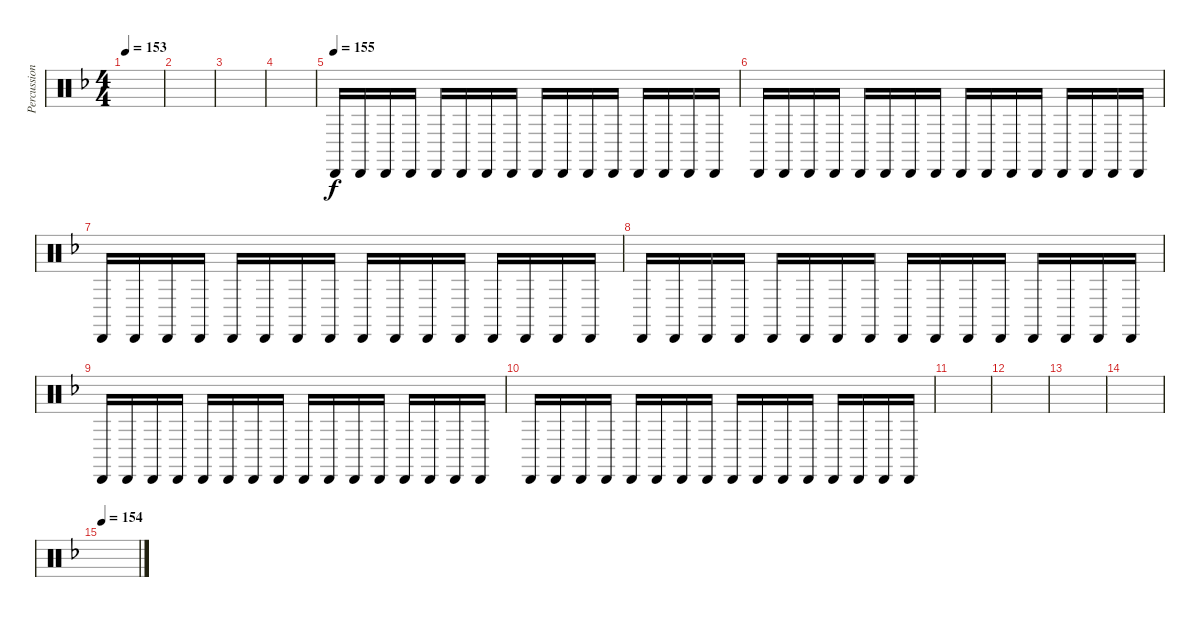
\track ("Percussion" "Percussion") {instrument percussion}
\staff {score}
\articulation defaults
\ts (4 4)
\tempo 153
\clef neutral
\ks dminor
|
|
|
|
\tempo (155)
"Cabasa (hit)".16 "Cabasa (hit)".16 "Cabasa (hit)".16 "Cabasa (hit)".16 "Cabasa (hit)".16 "Cabasa (hit)".16 "Cabasa (hit)".16 "Cabasa (hit)".16 "Cabasa (hit)".16 "Cabasa (hit)".16 "Cabasa (hit)".16 "Cabasa (hit)".16 "Cabasa (hit)".16 "Cabasa (hit)".16 "Cabasa (hit)".16 "Cabasa (hit)".16 |
"Cabasa (hit)".16 "Cabasa (hit)".16 "Cabasa (hit)".16 "Cabasa (hit)".16 "Cabasa (hit)".16 "Cabasa (hit)".16 "Cabasa (hit)".16 "Cabasa (hit)".16 "Cabasa (hit)".16 "Cabasa (hit)".16 "Cabasa (hit)".16 "Cabasa (hit)".16 "Cabasa (hit)".16 "Cabasa (hit)".16 "Cabasa (hit)".16 "Cabasa (hit)".16 |
"Cabasa (hit)".16 "Cabasa (hit)".16 "Cabasa (hit)".16 "Cabasa (hit)".16 "Cabasa (hit)".16 "Cabasa (hit)".16 "Cabasa (hit)".16 "Cabasa (hit)".16 "Cabasa (hit)".16 "Cabasa (hit)".16 "Cabasa (hit)".16 "Cabasa (hit)".16 "Cabasa (hit)".16 "Cabasa (hit)".16 "Cabasa (hit)".16 "Cabasa (hit)".16 |
"Cabasa (hit)".16 "Cabasa (hit)".16 "Cabasa (hit)".16 "Cabasa (hit)".16 "Cabasa (hit)".16 "Cabasa (hit)".16 "Cabasa (hit)".16 "Cabasa (hit)".16 "Cabasa (hit)".16 "Cabasa (hit)".16 "Cabasa (hit)".16 "Cabasa (hit)".16 "Cabasa (hit)".16 "Cabasa (hit)".16 "Cabasa (hit)".16 "Cabasa (hit)".16 |
"Cabasa (hit)".16 "Cabasa (hit)".16 "Cabasa (hit)".16 "Cabasa (hit)".16 "Cabasa (hit)".16 "Cabasa (hit)".16 "Cabasa (hit)".16 "Cabasa (hit)".16 "Cabasa (hit)".16 "Cabasa (hit)".16 "Cabasa (hit)".16 "Cabasa (hit)".16 "Cabasa (hit)".16 "Cabasa (hit)".16 "Cabasa (hit)".16 "Cabasa (hit)".16 |
"Cabasa (hit)".16 "Cabasa (hit)".16 "Cabasa (hit)".16 "Cabasa (hit)".16 "Cabasa (hit)".16 "Cabasa (hit)".16 "Cabasa (hit)".16 "Cabasa (hit)".16 "Cabasa (hit)".16 "Cabasa (hit)".16 "Cabasa (hit)".16 "Cabasa (hit)".16 "Cabasa (hit)".16 "Cabasa (hit)".16 "Cabasa (hit)".16 "Cabasa (hit)".16 |
|
|
|
|
\tempo 154
